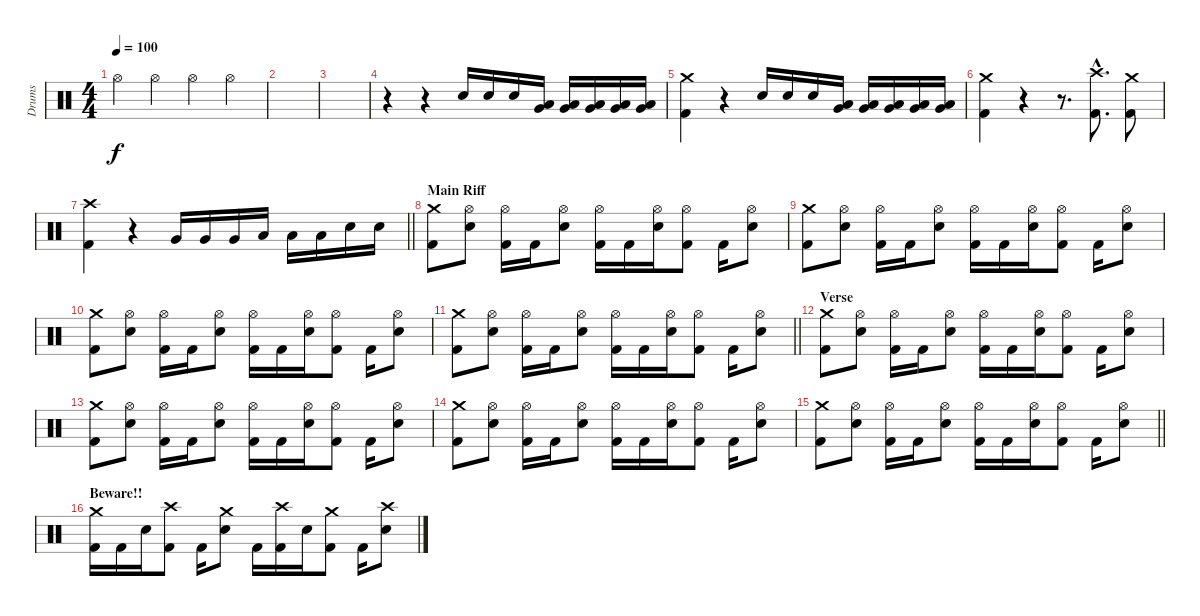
\track ("Drums" "Drums") {instrument percussion}
\staff {score}
\articulation defaults
\ts (4 4)
\tempo 100
\clef neutral
\ks c "Hi-Hat (open)".4{dy f} "Hi-Hat (open)".4 "Hi-Hat (open)".4 "Hi-Hat (open)".4
|
|
|
r.4 r.4 "Snare (hit) 2".16 "Snare (hit) 2".16 "Snare (hit) 2".16 ("Low Tom (hit)" "Very Low Tom (hit)").16 ("Low Tom (hit)" "Very Low Tom (hit)").16 ("Low Tom (hit)" "Very Low Tom (hit)").16 ("Very Low Tom (hit)" "Low Floor Tom (hit)").16 ("Very Low Tom (hit)" "Low Floor Tom (hit)").16 |
("Crash medium (hit)" "Kick (hit) 2").4 r.4 "Snare (hit) 2".16 "Snare (hit) 2".16 "Snare (hit) 2".16 ("Low Tom (hit)" "Very Low Tom (hit)").16 ("Low Tom (hit)" "Very Low Tom (hit)").16 ("Low Tom (hit)" "Very Low Tom (hit)").16 ("Very Low Tom (hit)" "Low Floor Tom (hit)").16 ("Very Low Tom (hit)" "Low Floor Tom (hit)").16 |
("Crash medium (hit)" "Kick (hit) 2").4 r.4 r.8{d} ("Crash high (hit)"{hac} "Kick (hit) 2"{hac}).8{d} ("Crash medium (hit)" "Kick (hit) 2").8 |
\barLineRight lightlight
("Crash high (hit)" "Kick (hit) 2").4 r.4 "Very Low Tom (hit)".16 "Very Low Tom (hit)".16 "Very Low Tom (hit)".16 "Low Tom (hit)".16 "Low Tom (hit)".16 "Low Tom (hit)".16 "Snare (hit) 2".16 "Snare (hit) 2".16 |
\section ("" "Main Riff")
("Crash medium (hit)" "Kick (hit) 2").8 ("Hi-Hat (open)" "Snare (hit) 2").8 ("Hi-Hat (open)" "Kick (hit) 2").16 "Kick (hit) 2".16 ("Hi-Hat (open)" "Snare (hit) 2").8 ("Hi-Hat (open)" "Kick (hit) 2").16 "Kick (hit) 2".16 ("Hi-Hat (open)" "Snare (hit) 2").16 ("Hi-Hat (open)" "Kick (hit) 2").8 "Kick (hit) 2".16 ("Hi-Hat (open)" "Snare (hit) 2").8 |
("Crash medium (hit)" "Kick (hit) 2").8 ("Hi-Hat (open)" "Snare (hit) 2").8 ("Hi-Hat (open)" "Kick (hit) 2").16 "Kick (hit) 2".16 ("Hi-Hat (open)" "Snare (hit) 2").8 ("Hi-Hat (open)" "Kick (hit) 2").16 "Kick (hit) 2".16 ("Hi-Hat (open)" "Snare (hit) 2").16 ("Hi-Hat (open)" "Kick (hit) 2").8 "Kick (hit) 2".16 ("Hi-Hat (open)" "Snare (hit) 2").8 |
("Crash medium (hit)" "Kick (hit) 2").8 ("Hi-Hat (open)" "Snare (hit) 2").8 ("Hi-Hat (open)" "Kick (hit) 2").16 "Kick (hit) 2".16 ("Hi-Hat (open)" "Snare (hit) 2").8 ("Hi-Hat (open)" "Kick (hit) 2").16 "Kick (hit) 2".16 ("Hi-Hat (open)" "Snare (hit) 2").16 ("Hi-Hat (open)" "Kick (hit) 2").8 "Kick (hit) 2".16 ("Hi-Hat (open)" "Snare (hit) 2").8 |
\barLineRight lightlight
("Crash medium (hit)" "Kick (hit) 2").8 ("Hi-Hat (open)" "Snare (hit) 2").8 ("Hi-Hat (open)" "Kick (hit) 2").16 "Kick (hit) 2".16 ("Hi-Hat (open)" "Snare (hit) 2").8 ("Hi-Hat (open)" "Kick (hit) 2").16 "Kick (hit) 2".16 ("Hi-Hat (open)" "Snare (hit) 2").16 ("Hi-Hat (open)" "Kick (hit) 2").8 "Kick (hit) 2".16 ("Hi-Hat (open)" "Snare (hit) 2").8 |
\section ("" "Verse")
("Crash medium (hit)" "Kick (hit) 2").8 ("Hi-Hat (open)" "Snare (hit) 2").8 ("Hi-Hat (open)" "Kick (hit) 2").16 "Kick (hit) 2".16 ("Hi-Hat (open)" "Snare (hit) 2").8 ("Hi-Hat (open)" "Kick (hit) 2").16 "Kick (hit) 2".16 ("Hi-Hat (open)" "Snare (hit) 2").16 ("Hi-Hat (open)" "Kick (hit) 2").8 "Kick (hit) 2".16 ("Hi-Hat (open)" "Snare (hit) 2").8 |
("Crash medium (hit)" "Kick (hit) 2").8 ("Hi-Hat (open)" "Snare (hit) 2").8 ("Hi-Hat (open)" "Kick (hit) 2").16 "Kick (hit) 2".16 ("Hi-Hat (open)" "Snare (hit) 2").8 ("Hi-Hat (open)" "Kick (hit) 2").16 "Kick (hit) 2".16 ("Hi-Hat (open)" "Snare (hit) 2").16 ("Hi-Hat (open)" "Kick (hit) 2").8 "Kick (hit) 2".16 ("Hi-Hat (open)" "Snare (hit) 2").8 |
("Crash medium (hit)" "Kick (hit) 2").8 ("Hi-Hat (open)" "Snare (hit) 2").8 ("Hi-Hat (open)" "Kick (hit) 2").16 "Kick (hit) 2".16 ("Hi-Hat (open)" "Snare (hit) 2").8 ("Hi-Hat (open)" "Kick (hit) 2").16 "Kick (hit) 2".16 ("Hi-Hat (open)" "Snare (hit) 2").16 ("Hi-Hat (open)" "Kick (hit) 2").8 "Kick (hit) 2".16 ("Hi-Hat (open)" "Snare (hit) 2").8 |
\barLineRight lightlight
("Crash medium (hit)" "Kick (hit) 2").8 ("Hi-Hat (open)" "Snare (hit) 2").8 ("Hi-Hat (open)" "Kick (hit) 2").16 "Kick (hit) 2".16 ("Hi-Hat (open)" "Snare (hit) 2").8 ("Hi-Hat (open)" "Kick (hit) 2").16 "Kick (hit) 2".16 ("Hi-Hat (open)" "Snare (hit) 2").16 ("Hi-Hat (open)" "Kick (hit) 2").8 "Kick (hit) 2".16 ("Hi-Hat (open)" "Snare (hit) 2").8 |
\section ("" "Beware!!")
("Crash medium (hit)" "Kick (hit) 2").16 "Kick (hit) 2".16 "Snare (hit) 2".16 ("Crash high (hit)" "Kick (hit) 2").8 "Kick (hit) 2".16 ("Crash medium (hit)" "Snare (hit) 2").8 "Kick (hit) 2".16 ("Crash high (hit)" "Kick (hit) 2").16 "Snare (hit) 2".16 ("Crash medium (hit)" "Kick (hit) 2").8 "Kick (hit) 2".16 ("Crash high (hit)" "Snare (hit) 2").8
